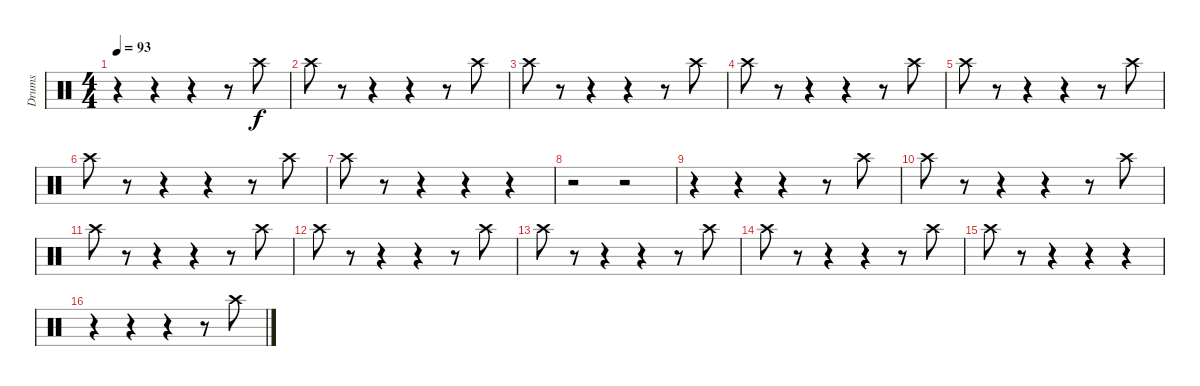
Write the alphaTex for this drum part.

\track ("Drums" "Drums") {instrument percussion}
\staff {score}
\articulation defaults
\ts (4 4)
\tempo 93
\clef neutral
\ks c
r.4{dy f} r.4 r.4 r.8 "Crash high (hit)".8 |
"Crash high (hit)".8 r.8 r.4 r.4 r.8 "Crash high (hit)".8 |
"Crash high (hit)".8 r.8 r.4 r.4 r.8 "Crash high (hit)".8 |
"Crash high (hit)".8 r.8 r.4 r.4 r.8 "Crash high (hit)".8 |
"Crash high (hit)".8 r.8 r.4 r.4 r.8 "Crash high (hit)".8 |
"Crash high (hit)".8 r.8 r.4 r.4 r.8 "Crash high (hit)".8 |
"Crash high (hit)".8 r.8 r.4 r.4 r.4 |
r.2 r.2 |
r.4 r.4 r.4 r.8 "Crash high (hit)".8 |
"Crash high (hit)".8 r.8 r.4 r.4 r.8 "Crash high (hit)".8 |
"Crash high (hit)".8 r.8 r.4 r.4 r.8 "Crash high (hit)".8 |
"Crash high (hit)".8 r.8 r.4 r.4 r.8 "Crash high (hit)".8 |
"Crash high (hit)".8 r.8 r.4 r.4 r.8 "Crash high (hit)".8 |
"Crash high (hit)".8 r.8 r.4 r.4 r.8 "Crash high (hit)".8 |
"Crash high (hit)".8 r.8 r.4 r.4 r.4 |
r.4 r.4 r.4 r.8 "Crash high (hit)".8
